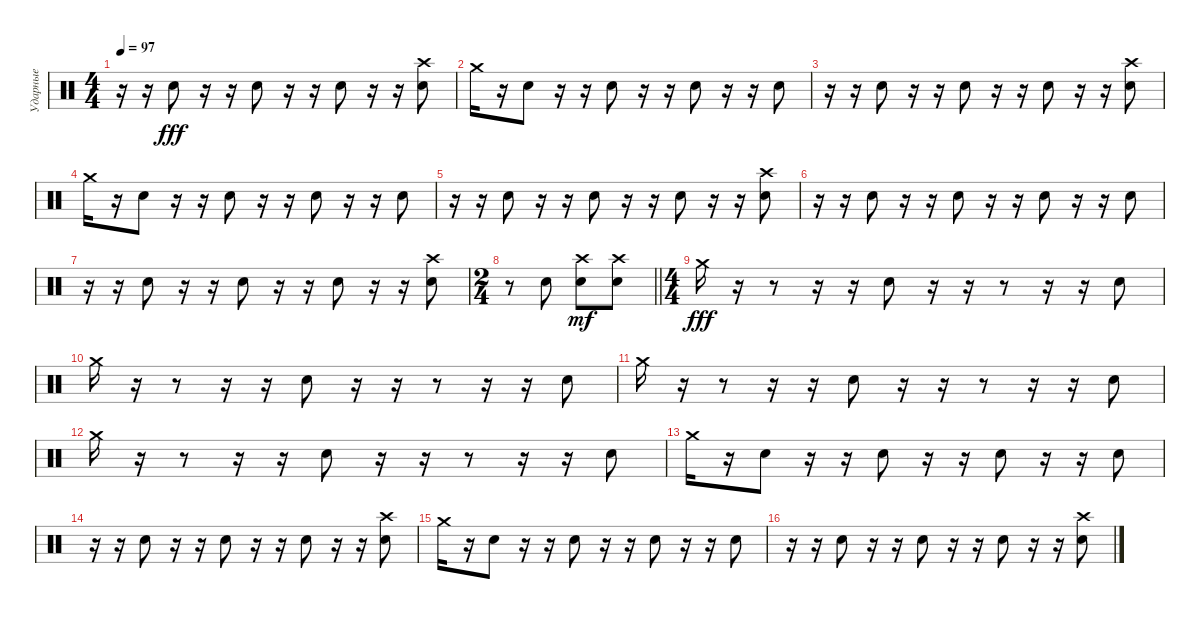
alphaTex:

\track ("Ударные" "Ударные") {instrument percussion}
\staff {score}
\articulation defaults
\ts (4 4)
\tempo 97
\clef neutral
\ks c
r.16{dy fff} r.16 "Electric Snare (hit)".8 r.16 r.16 "Electric Snare (hit)".8 r.16 r.16 "Electric Snare (hit)".8 r.16 r.16 ("Electric Snare (hit)" "Crash high (hit)").8 |
"Crash medium (hit)".16 r.16 "Electric Snare (hit)".8 r.16 r.16 "Electric Snare (hit)".8 r.16 r.16 "Electric Snare (hit)".8 r.16 r.16 "Electric Snare (hit)".8 |
r.16 r.16 "Electric Snare (hit)".8 r.16 r.16 "Electric Snare (hit)".8 r.16 r.16 "Electric Snare (hit)".8 r.16 r.16 ("Electric Snare (hit)" "Crash high (hit)").8 |
"Crash medium (hit)".16 r.16 "Electric Snare (hit)".8 r.16 r.16 "Electric Snare (hit)".8 r.16 r.16 "Electric Snare (hit)".8 r.16 r.16 "Electric Snare (hit)".8 |
r.16 r.16 "Electric Snare (hit)".8 r.16 r.16 "Electric Snare (hit)".8 r.16 r.16 "Electric Snare (hit)".8 r.16 r.16 ("Electric Snare (hit)" "Crash high (hit)").8 |
r.16 r.16 "Electric Snare (hit)".8 r.16 r.16 "Electric Snare (hit)".8 r.16 r.16 "Electric Snare (hit)".8 r.16 r.16 "Electric Snare (hit)".8 |
r.16 r.16 "Electric Snare (hit)".8 r.16 r.16 "Electric Snare (hit)".8 r.16 r.16 "Electric Snare (hit)".8 r.16 r.16 ("Electric Snare (hit)" "Crash high (hit)").8 |
\ts (2 4)
\barLineRight lightlight
r.8 "Electric Snare (hit)".8 ("Electric Snare (hit)" "Crash high (hit)").8{dy mf} ("Electric Snare (hit)" "Crash high (hit)").8 |
\ts (4 4)
"Crash medium (hit)".16{dy fff} r.16 r.8 r.16 r.16 "Electric Snare (hit)".8 r.16 r.16 r.8 r.16 r.16 "Electric Snare (hit)".8 |
"Crash medium (hit)".16 r.16 r.8 r.16 r.16 "Electric Snare (hit)".8 r.16 r.16 r.8 r.16 r.16 "Electric Snare (hit)".8 |
"Crash medium (hit)".16 r.16 r.8 r.16 r.16 "Electric Snare (hit)".8 r.16 r.16 r.8 r.16 r.16 "Electric Snare (hit)".8 |
"Crash medium (hit)".16 r.16 r.8 r.16 r.16 "Electric Snare (hit)".8 r.16 r.16 r.8 r.16 r.16 "Electric Snare (hit)".8 |
"Crash medium (hit)".16 r.16 "Electric Snare (hit)".8 r.16 r.16 "Electric Snare (hit)".8 r.16 r.16 "Electric Snare (hit)".8 r.16 r.16 "Electric Snare (hit)".8 |
r.16 r.16 "Electric Snare (hit)".8 r.16 r.16 "Electric Snare (hit)".8 r.16 r.16 "Electric Snare (hit)".8 r.16 r.16 ("Electric Snare (hit)" "Crash high (hit)").8 |
"Crash medium (hit)".16 r.16 "Electric Snare (hit)".8 r.16 r.16 "Electric Snare (hit)".8 r.16 r.16 "Electric Snare (hit)".8 r.16 r.16 "Electric Snare (hit)".8 |
r.16 r.16 "Electric Snare (hit)".8 r.16 r.16 "Electric Snare (hit)".8 r.16 r.16 "Electric Snare (hit)".8 r.16 r.16 ("Electric Snare (hit)" "Crash high (hit)").8
